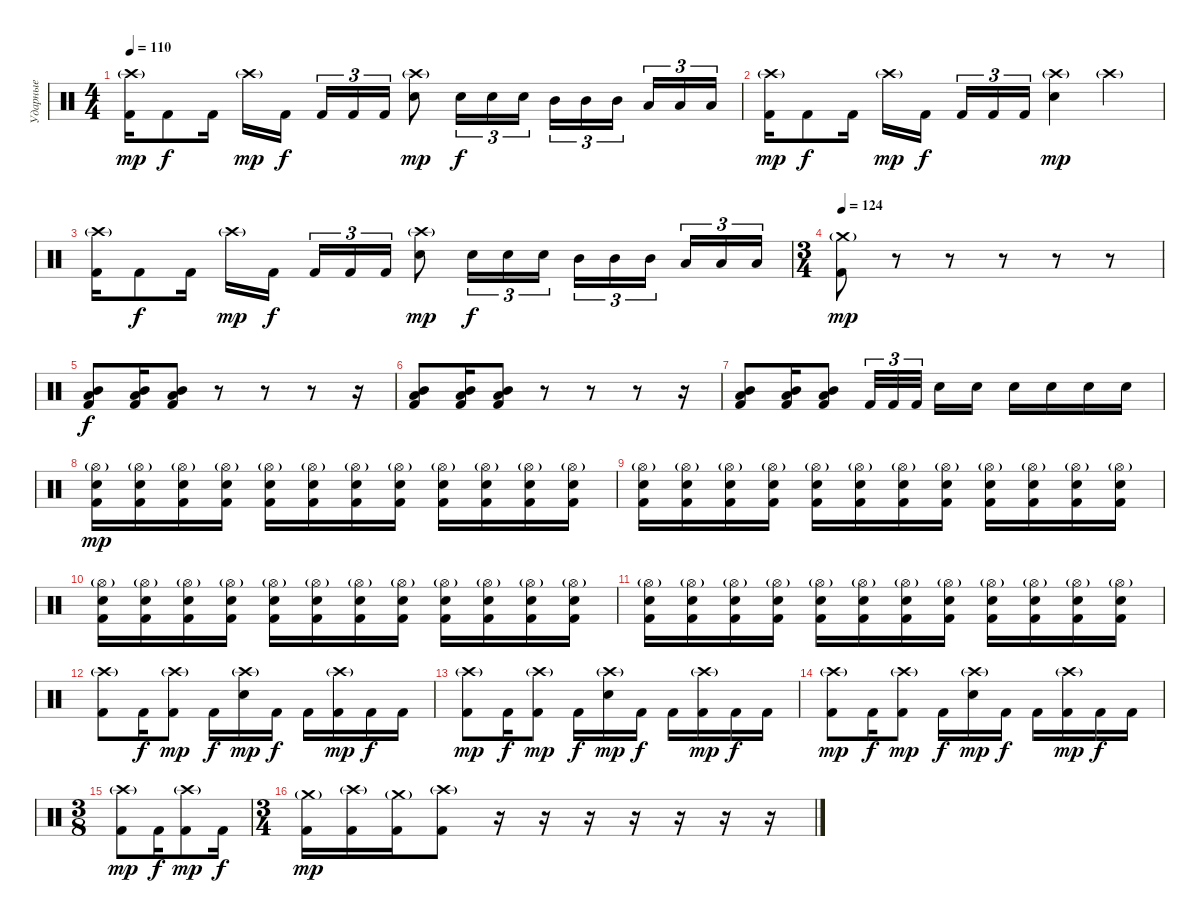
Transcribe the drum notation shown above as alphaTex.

\track ("Ударные" "Ударные") {instrument percussion}
\staff {score}
\articulation defaults
\ts (4 4)
\tempo 110
\clef neutral
\ks c
("Crash high (hit)"{g} "Kick (hit) 2").16{dy mp} "Kick (hit) 2".8{dy f} "Kick (hit) 2".16 "Crash high (hit)"{g}.16{dy mp} "Kick (hit) 2".16{dy f} "Kick (hit) 2".16{tu (3 2)} "Kick (hit) 2".16{tu (3 2)} "Kick (hit) 2".16{tu (3 2)} ("Crash high (hit)"{g} "Electric Snare (hit)").8{dy mp} "Electric Snare (hit)".16{tu (3 2) dy f} "Electric Snare (hit)".16{tu (3 2)} "Electric Snare (hit)".16{tu (3 2)} "Mid Tom (hit)".16{tu (3 2)} "Mid Tom (hit)".16{tu (3 2)} "Mid Tom (hit)".16{tu (3 2)} "Low Tom (hit)".16{tu (3 2)} "Low Tom (hit)".16{tu (3 2)} "Low Tom (hit)".16{tu (3 2)} |
("Crash high (hit)"{g} "Kick (hit) 2").16{dy mp} "Kick (hit) 2".8{dy f} "Kick (hit) 2".16 "Crash high (hit)"{g}.16{dy mp} "Kick (hit) 2".16{dy f} "Kick (hit) 2".16{tu (3 2)} "Kick (hit) 2".16{tu (3 2)} "Kick (hit) 2".16{tu (3 2)} ("Crash high (hit)"{g} "Electric Snare (hit)").4{dy mp} "Crash high (hit)"{g}.4 |
("Crash high (hit)"{g} "Kick (hit) 2").16 "Kick (hit) 2".8{dy f} "Kick (hit) 2".16 "Crash high (hit)"{g}.16{dy mp} "Kick (hit) 2".16{dy f} "Kick (hit) 2".16{tu (3 2)} "Kick (hit) 2".16{tu (3 2)} "Kick (hit) 2".16{tu (3 2)} ("Crash high (hit)"{g} "Electric Snare (hit)").8{dy mp} "Electric Snare (hit)".16{tu (3 2) dy f} "Electric Snare (hit)".16{tu (3 2)} "Electric Snare (hit)".16{tu (3 2)} "Mid Tom (hit)".16{tu (3 2)} "Mid Tom (hit)".16{tu (3 2)} "Mid Tom (hit)".16{tu (3 2)} "Low Tom (hit)".16{tu (3 2)} "Low Tom (hit)".16{tu (3 2)} "Low Tom (hit)".16{tu (3 2)} |
\ts (3 4)
\tempo 124
("Crash medium (hit)"{g} "Kick (hit) 2").8{dy mp} r.8{volume 0} r.8 r.8 r.8 r.8 |
("Mid Tom (hit)" "Low Tom (hit)" "Kick (hit) 2").8{dy f volume 16} ("Mid Tom (hit)" "Low Tom (hit)" "Kick (hit) 2").16 ("Mid Tom (hit)" "Low Tom (hit)" "Kick (hit) 2").8 r.8 r.8 r.8 r.16 |
("Mid Tom (hit)" "Low Tom (hit)" "Kick (hit) 2").8 ("Mid Tom (hit)" "Low Tom (hit)" "Kick (hit) 2").16 ("Mid Tom (hit)" "Low Tom (hit)" "Kick (hit) 2").8 r.8 r.8 r.8 r.16 |
("Mid Tom (hit)" "Low Tom (hit)" "Kick (hit) 2").8 ("Mid Tom (hit)" "Low Tom (hit)" "Kick (hit) 2").16 ("Mid Tom (hit)" "Low Tom (hit)" "Kick (hit) 2").8 "Kick (hit) 2".32{tu (3 2)} "Kick (hit) 2".32{tu (3 2)} "Kick (hit) 2".32{tu (3 2)} "Electric Snare (hit)".16 "Electric Snare (hit)".16 "Electric Snare (hit)".16 "Electric Snare (hit)".16 "Electric Snare (hit)".16 "Electric Snare (hit)".16 |
("Hi-Hat (open)"{g} "Electric Snare (hit)" "Kick (hit) 2").16{dy mp} ("Hi-Hat (open)"{g} "Electric Snare (hit)" "Kick (hit) 2").16 ("Hi-Hat (open)"{g} "Electric Snare (hit)" "Kick (hit) 2").16 ("Hi-Hat (open)"{g} "Electric Snare (hit)" "Kick (hit) 2").16 ("Hi-Hat (open)"{g} "Electric Snare (hit)" "Kick (hit) 2").16 ("Hi-Hat (open)"{g} "Electric Snare (hit)" "Kick (hit) 2").16 ("Hi-Hat (open)"{g} "Electric Snare (hit)" "Kick (hit) 2").16 ("Hi-Hat (open)"{g} "Electric Snare (hit)" "Kick (hit) 2").16 ("Hi-Hat (open)"{g} "Electric Snare (hit)" "Kick (hit) 2").16 ("Hi-Hat (open)"{g} "Electric Snare (hit)" "Kick (hit) 2").16 ("Hi-Hat (open)"{g} "Electric Snare (hit)" "Kick (hit) 2").16 ("Hi-Hat (open)"{g} "Electric Snare (hit)" "Kick (hit) 2").16 |
("Hi-Hat (open)"{g} "Electric Snare (hit)" "Kick (hit) 2").16 ("Hi-Hat (open)"{g} "Electric Snare (hit)" "Kick (hit) 2").16 ("Hi-Hat (open)"{g} "Electric Snare (hit)" "Kick (hit) 2").16 ("Hi-Hat (open)"{g} "Electric Snare (hit)" "Kick (hit) 2").16 ("Hi-Hat (open)"{g} "Electric Snare (hit)" "Kick (hit) 2").16 ("Hi-Hat (open)"{g} "Electric Snare (hit)" "Kick (hit) 2").16 ("Hi-Hat (open)"{g} "Electric Snare (hit)" "Kick (hit) 2").16 ("Hi-Hat (open)"{g} "Electric Snare (hit)" "Kick (hit) 2").16 ("Hi-Hat (open)"{g} "Electric Snare (hit)" "Kick (hit) 2").16 ("Hi-Hat (open)"{g} "Electric Snare (hit)" "Kick (hit) 2").16 ("Hi-Hat (open)"{g} "Electric Snare (hit)" "Kick (hit) 2").16 ("Hi-Hat (open)"{g} "Electric Snare (hit)" "Kick (hit) 2").16 |
("Hi-Hat (open)"{g} "Electric Snare (hit)" "Kick (hit) 2").16 ("Hi-Hat (open)"{g} "Electric Snare (hit)" "Kick (hit) 2").16 ("Hi-Hat (open)"{g} "Electric Snare (hit)" "Kick (hit) 2").16 ("Hi-Hat (open)"{g} "Electric Snare (hit)" "Kick (hit) 2").16 ("Hi-Hat (open)"{g} "Electric Snare (hit)" "Kick (hit) 2").16 ("Hi-Hat (open)"{g} "Electric Snare (hit)" "Kick (hit) 2").16 ("Hi-Hat (open)"{g} "Electric Snare (hit)" "Kick (hit) 2").16 ("Hi-Hat (open)"{g} "Electric Snare (hit)" "Kick (hit) 2").16 ("Hi-Hat (open)"{g} "Electric Snare (hit)" "Kick (hit) 2").16 ("Hi-Hat (open)"{g} "Electric Snare (hit)" "Kick (hit) 2").16 ("Hi-Hat (open)"{g} "Electric Snare (hit)" "Kick (hit) 2").16 ("Hi-Hat (open)"{g} "Electric Snare (hit)" "Kick (hit) 2").16 |
("Hi-Hat (open)"{g} "Electric Snare (hit)" "Kick (hit) 2").16 ("Hi-Hat (open)"{g} "Electric Snare (hit)" "Kick (hit) 2").16 ("Hi-Hat (open)"{g} "Electric Snare (hit)" "Kick (hit) 2").16 ("Hi-Hat (open)"{g} "Electric Snare (hit)" "Kick (hit) 2").16 ("Hi-Hat (open)"{g} "Electric Snare (hit)" "Kick (hit) 2").16 ("Hi-Hat (open)"{g} "Electric Snare (hit)" "Kick (hit) 2").16 ("Hi-Hat (open)"{g} "Electric Snare (hit)" "Kick (hit) 2").16 ("Hi-Hat (open)"{g} "Electric Snare (hit)" "Kick (hit) 2").16 ("Hi-Hat (open)"{g} "Electric Snare (hit)" "Kick (hit) 2").16 ("Hi-Hat (open)"{g} "Electric Snare (hit)" "Kick (hit) 2").16 ("Hi-Hat (open)"{g} "Electric Snare (hit)" "Kick (hit) 2").16 ("Hi-Hat (open)"{g} "Electric Snare (hit)" "Kick (hit) 2").16 |
("Crash high (hit)"{g} "Kick (hit) 2").8 "Kick (hit) 2".16{dy f} ("Crash high (hit)"{g} "Kick (hit) 2").8{dy mp} "Kick (hit) 2".16{dy f} ("Crash high (hit)"{g} "Electric Snare (hit)").16{dy mp} "Kick (hit) 2".16{dy f} "Kick (hit) 2".16 ("Crash high (hit)"{g} "Kick (hit) 2").16{dy mp} "Kick (hit) 2".16{dy f} "Kick (hit) 2".16 |
("Crash high (hit)"{g} "Kick (hit) 2").8{dy mp} "Kick (hit) 2".16{dy f} ("Crash high (hit)"{g} "Kick (hit) 2").8{dy mp} "Kick (hit) 2".16{dy f} ("Crash high (hit)"{g} "Electric Snare (hit)").16{dy mp} "Kick (hit) 2".16{dy f} "Kick (hit) 2".16 ("Crash high (hit)"{g} "Kick (hit) 2").16{dy mp} "Kick (hit) 2".16{dy f} "Kick (hit) 2".16 |
("Crash high (hit)"{g} "Kick (hit) 2").8{dy mp} "Kick (hit) 2".16{dy f} ("Crash high (hit)"{g} "Kick (hit) 2").8{dy mp} "Kick (hit) 2".16{dy f} ("Crash high (hit)"{g} "Electric Snare (hit)").16{dy mp} "Kick (hit) 2".16{dy f} "Kick (hit) 2".16 ("Crash high (hit)"{g} "Kick (hit) 2").16{dy mp} "Kick (hit) 2".16{dy f} "Kick (hit) 2".16 |
\ts (3 8)
("Crash high (hit)"{g} "Kick (hit) 2").8{dy mp} "Kick (hit) 2".16{dy f} ("Crash high (hit)"{g} "Kick (hit) 2").8{dy mp} "Kick (hit) 2".16{dy f} |
\ts (3 4)
("Crash medium (hit)"{g} "Kick (hit) 2").16{dy mp} ("Crash high (hit)"{g} "Kick (hit) 2").16 ("Crash medium (hit)"{g} "Kick (hit) 2").16 ("Crash high (hit)"{g} "Kick (hit) 2").8 r.16{volume 0} r.16 r.16 r.16 r.16 r.16 r.16
